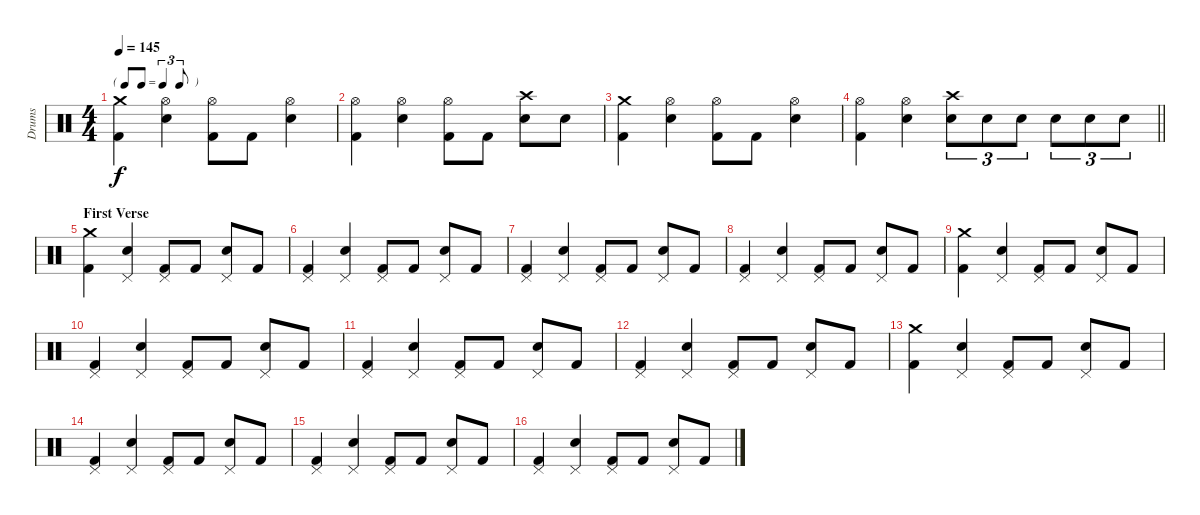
\track ("Drums" "Drums") {instrument percussion}
\staff {score}
\articulation defaults
\ts (4 4)
\tf triplet8th
\tempo 145
\clef neutral
\ks c
("Crash medium (hit)" "Kick (hit) 2").4{dy f} ("Hi-Hat (open)" "Electric Snare (hit)").4 ("Hi-Hat (open)" "Kick (hit) 2").8 "Kick (hit) 2".8 ("Hi-Hat (open)" "Electric Snare (hit)").4 |
("Hi-Hat (open)" "Kick (hit) 2").4 ("Hi-Hat (open)" "Electric Snare (hit)").4 ("Hi-Hat (open)" "Kick (hit) 2").8 "Kick (hit) 2".8 ("Crash high (hit)" "Electric Snare (hit)").8 "Electric Snare (hit)".8 |
("Crash medium (hit)" "Kick (hit) 2").4 ("Hi-Hat (open)" "Electric Snare (hit)").4 ("Hi-Hat (open)" "Kick (hit) 2").8 "Kick (hit) 2".8 ("Hi-Hat (open)" "Electric Snare (hit)").4 |
\barLineRight lightlight
("Hi-Hat (open)" "Kick (hit) 2").4 ("Hi-Hat (open)" "Electric Snare (hit)").4 ("Crash high (hit)" "Electric Snare (hit)").8{tu (3 2)} "Electric Snare (hit)".8{tu (3 2)} "Electric Snare (hit)".8{tu (3 2)} "Electric Snare (hit)".8{tu (3 2)} "Electric Snare (hit)".8{tu (3 2)} "Electric Snare (hit)".8{tu (3 2)} |
\section ("" "First Verse")
("Crash medium (hit)" "Kick (hit) 2").4 ("Pedal Hi-Hat (hit)" "Electric Snare (hit)").4 ("Pedal Hi-Hat (hit)" "Kick (hit) 2").8 "Kick (hit) 2".8 ("Pedal Hi-Hat (hit)" "Electric Snare (hit)").8 "Kick (hit) 2".8 |
("Pedal Hi-Hat (hit)" "Kick (hit) 2").4 ("Pedal Hi-Hat (hit)" "Electric Snare (hit)").4 ("Pedal Hi-Hat (hit)" "Kick (hit) 2").8 "Kick (hit) 2".8 ("Pedal Hi-Hat (hit)" "Electric Snare (hit)").8 "Kick (hit) 2".8 |
("Pedal Hi-Hat (hit)" "Kick (hit) 2").4 ("Pedal Hi-Hat (hit)" "Electric Snare (hit)").4 ("Pedal Hi-Hat (hit)" "Kick (hit) 2").8 "Kick (hit) 2".8 ("Pedal Hi-Hat (hit)" "Electric Snare (hit)").8 "Kick (hit) 2".8 |
("Pedal Hi-Hat (hit)" "Kick (hit) 2").4 ("Pedal Hi-Hat (hit)" "Electric Snare (hit)").4 ("Pedal Hi-Hat (hit)" "Kick (hit) 2").8 "Kick (hit) 2".8 ("Pedal Hi-Hat (hit)" "Electric Snare (hit)").8 "Kick (hit) 2".8 |
("Crash medium (hit)" "Kick (hit) 2").4 ("Pedal Hi-Hat (hit)" "Electric Snare (hit)").4 ("Pedal Hi-Hat (hit)" "Kick (hit) 2").8 "Kick (hit) 2".8 ("Pedal Hi-Hat (hit)" "Electric Snare (hit)").8 "Kick (hit) 2".8 |
("Pedal Hi-Hat (hit)" "Kick (hit) 2").4 ("Pedal Hi-Hat (hit)" "Electric Snare (hit)").4 ("Pedal Hi-Hat (hit)" "Kick (hit) 2").8 "Kick (hit) 2".8 ("Pedal Hi-Hat (hit)" "Electric Snare (hit)").8 "Kick (hit) 2".8 |
("Pedal Hi-Hat (hit)" "Kick (hit) 2").4 ("Pedal Hi-Hat (hit)" "Electric Snare (hit)").4 ("Pedal Hi-Hat (hit)" "Kick (hit) 2").8 "Kick (hit) 2".8 ("Pedal Hi-Hat (hit)" "Electric Snare (hit)").8 "Kick (hit) 2".8 |
("Pedal Hi-Hat (hit)" "Kick (hit) 2").4 ("Pedal Hi-Hat (hit)" "Electric Snare (hit)").4 ("Pedal Hi-Hat (hit)" "Kick (hit) 2").8 "Kick (hit) 2".8 ("Pedal Hi-Hat (hit)" "Electric Snare (hit)").8 "Kick (hit) 2".8 |
("Crash medium (hit)" "Kick (hit) 2").4 ("Pedal Hi-Hat (hit)" "Electric Snare (hit)").4 ("Pedal Hi-Hat (hit)" "Kick (hit) 2").8 "Kick (hit) 2".8 ("Pedal Hi-Hat (hit)" "Electric Snare (hit)").8 "Kick (hit) 2".8 |
("Pedal Hi-Hat (hit)" "Kick (hit) 2").4 ("Pedal Hi-Hat (hit)" "Electric Snare (hit)").4 ("Pedal Hi-Hat (hit)" "Kick (hit) 2").8 "Kick (hit) 2".8 ("Pedal Hi-Hat (hit)" "Electric Snare (hit)").8 "Kick (hit) 2".8 |
("Pedal Hi-Hat (hit)" "Kick (hit) 2").4 ("Pedal Hi-Hat (hit)" "Electric Snare (hit)").4 ("Pedal Hi-Hat (hit)" "Kick (hit) 2").8 "Kick (hit) 2".8 ("Pedal Hi-Hat (hit)" "Electric Snare (hit)").8 "Kick (hit) 2".8 |
("Pedal Hi-Hat (hit)" "Kick (hit) 2").4 ("Pedal Hi-Hat (hit)" "Electric Snare (hit)").4 ("Pedal Hi-Hat (hit)" "Kick (hit) 2").8 "Kick (hit) 2".8 ("Pedal Hi-Hat (hit)" "Electric Snare (hit)").8 "Kick (hit) 2".8
